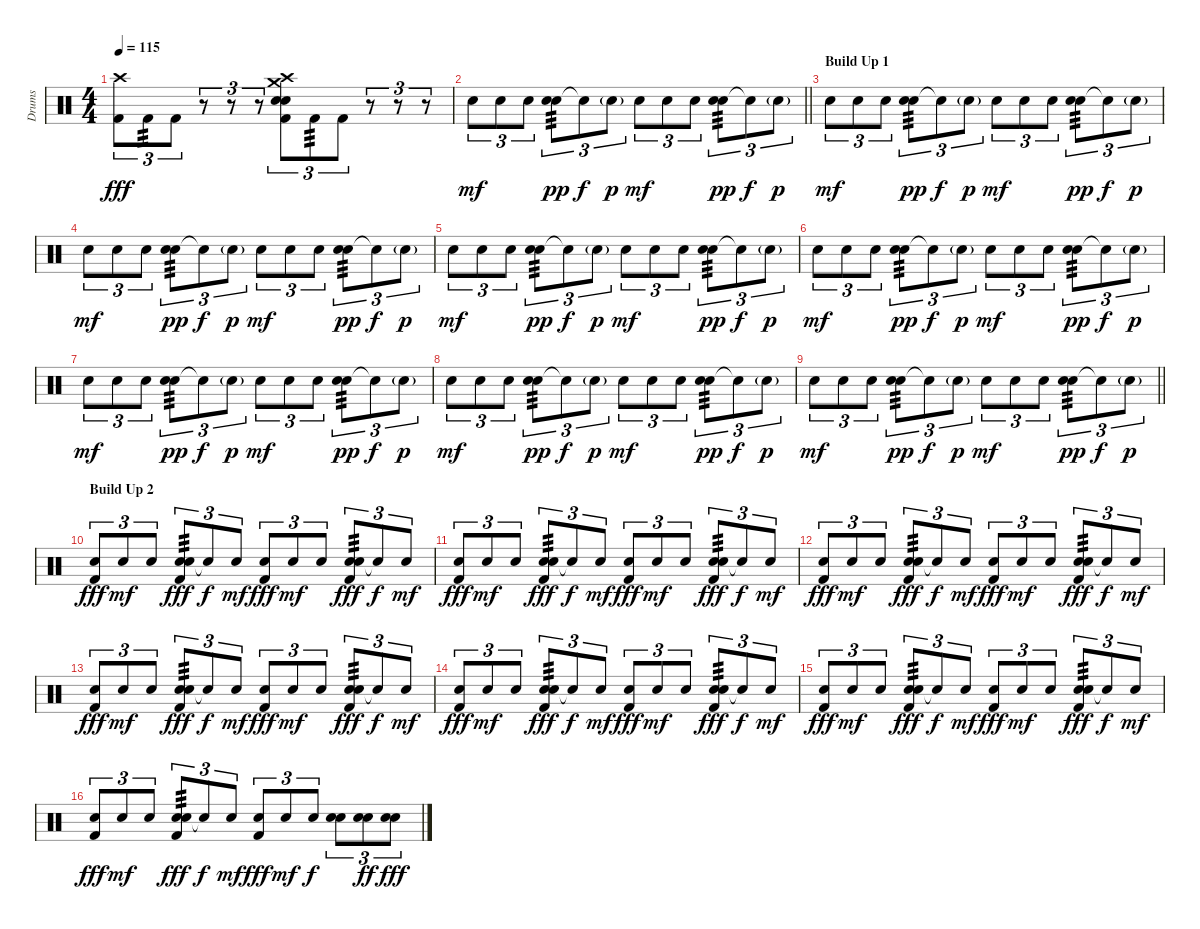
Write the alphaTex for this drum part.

\track ("Drums" "Drums") {instrument percussion}
\staff {score}
\articulation defaults
\ts (4 4)
\tempo 115
\clef neutral
\ks c
("Crash high (hit)" "Kick (hit) 2").8{tu (3 2) dy fff} "Kick (hit) 2".8{tu (3 2) tp 3} "Kick (hit) 2".8{tu (3 2)} r.8{tu (3 2)} r.8{tu (3 2)} r.8{tu (3 2)} ("Crash high (hit)" "Crash medium (hit)" "Snare (hit) 2" "Electric Snare (hit)" "Kick (hit) 2").8{tu (3 2)} "Kick (hit) 2".8{tu (3 2) tp 3} "Kick (hit) 2".8{tu (3 2)} r.8{tu (3 2)} r.8{tu (3 2)} r.8{tu (3 2)} |
\barLineRight lightlight "Electric Snare (hit)".8{tu (3 2) dy mf} "Electric Snare (hit)".8{tu (3 2)} "Electric Snare (hit)".8{tu (3 2)}
("Electric Snare (hit)" "Snare (hit) 2").8{tu (3 2) tp 3 dy pp} "Snare (hit)"{t}.8{tu (3 2) dy f} "Electric Snare (hit)"{g}.8{tu (3 2) dy p} "Electric Snare (hit)".8{tu (3 2) dy mf} "Electric Snare (hit)".8{tu (3 2)} "Electric Snare (hit)".8{tu (3 2)} ("Electric Snare (hit)" "Snare (hit) 2").8{tu (3 2) tp 3 dy pp} "Snare (hit)"{t}.8{tu (3 2) dy f} "Electric Snare (hit)"{g}.8{tu (3 2) dy p} |
\section ("" "Build Up 1")
"Electric Snare (hit)".8{tu (3 2) dy mf} "Electric Snare (hit)".8{tu (3 2)} "Electric Snare (hit)".8{tu (3 2)} ("Electric Snare (hit)" "Snare (hit) 2").8{tu (3 2) tp 3 dy pp} "Snare (hit)"{t}.8{tu (3 2) dy f} "Electric Snare (hit)"{g}.8{tu (3 2) dy p} "Electric Snare (hit)".8{tu (3 2) dy mf} "Electric Snare (hit)".8{tu (3 2)} "Electric Snare (hit)".8{tu (3 2)} ("Electric Snare (hit)" "Snare (hit) 2").8{tu (3 2) tp 3 dy pp} "Snare (hit)"{t}.8{tu (3 2) dy f} "Electric Snare (hit)"{g}.8{tu (3 2) dy p} |
"Electric Snare (hit)".8{tu (3 2) dy mf} "Electric Snare (hit)".8{tu (3 2)} "Electric Snare (hit)".8{tu (3 2)} ("Electric Snare (hit)" "Snare (hit) 2").8{tu (3 2) tp 3 dy pp} "Snare (hit)"{t}.8{tu (3 2) dy f} "Electric Snare (hit)"{g}.8{tu (3 2) dy p} "Electric Snare (hit)".8{tu (3 2) dy mf} "Electric Snare (hit)".8{tu (3 2)} "Electric Snare (hit)".8{tu (3 2)} ("Electric Snare (hit)" "Snare (hit) 2").8{tu (3 2) tp 3 dy pp} "Snare (hit)"{t}.8{tu (3 2) dy f} "Electric Snare (hit)"{g}.8{tu (3 2) dy p} |
"Electric Snare (hit)".8{tu (3 2) dy mf} "Electric Snare (hit)".8{tu (3 2)} "Electric Snare (hit)".8{tu (3 2)} ("Electric Snare (hit)" "Snare (hit) 2").8{tu (3 2) tp 3 dy pp} "Snare (hit)"{t}.8{tu (3 2) dy f} "Electric Snare (hit)"{g}.8{tu (3 2) dy p} "Electric Snare (hit)".8{tu (3 2) dy mf} "Electric Snare (hit)".8{tu (3 2)} "Electric Snare (hit)".8{tu (3 2)} ("Electric Snare (hit)" "Snare (hit) 2").8{tu (3 2) tp 3 dy pp} "Snare (hit)"{t}.8{tu (3 2) dy f} "Electric Snare (hit)"{g}.8{tu (3 2) dy p} |
"Electric Snare (hit)".8{tu (3 2) dy mf} "Electric Snare (hit)".8{tu (3 2)} "Electric Snare (hit)".8{tu (3 2)} ("Electric Snare (hit)" "Snare (hit) 2").8{tu (3 2) tp 3 dy pp} "Snare (hit)"{t}.8{tu (3 2) dy f} "Electric Snare (hit)"{g}.8{tu (3 2) dy p} "Electric Snare (hit)".8{tu (3 2) dy mf} "Electric Snare (hit)".8{tu (3 2)} "Electric Snare (hit)".8{tu (3 2)} ("Electric Snare (hit)" "Snare (hit) 2").8{tu (3 2) tp 3 dy pp} "Snare (hit)"{t}.8{tu (3 2) dy f} "Electric Snare (hit)"{g}.8{tu (3 2) dy p} |
"Electric Snare (hit)".8{tu (3 2) dy mf} "Electric Snare (hit)".8{tu (3 2)} "Electric Snare (hit)".8{tu (3 2)} ("Electric Snare (hit)" "Snare (hit) 2").8{tu (3 2) tp 3 dy pp} "Snare (hit)"{t}.8{tu (3 2) dy f} "Electric Snare (hit)"{g}.8{tu (3 2) dy p} "Electric Snare (hit)".8{tu (3 2) dy mf} "Electric Snare (hit)".8{tu (3 2)} "Electric Snare (hit)".8{tu (3 2)} ("Electric Snare (hit)" "Snare (hit) 2").8{tu (3 2) tp 3 dy pp} "Snare (hit)"{t}.8{tu (3 2) dy f} "Electric Snare (hit)"{g}.8{tu (3 2) dy p} |
"Electric Snare (hit)".8{tu (3 2) dy mf} "Electric Snare (hit)".8{tu (3 2)} "Electric Snare (hit)".8{tu (3 2)} ("Electric Snare (hit)" "Snare (hit) 2").8{tu (3 2) tp 3 dy pp} "Snare (hit)"{t}.8{tu (3 2) dy f} "Electric Snare (hit)"{g}.8{tu (3 2) dy p} "Electric Snare (hit)".8{tu (3 2) dy mf} "Electric Snare (hit)".8{tu (3 2)} "Electric Snare (hit)".8{tu (3 2)} ("Electric Snare (hit)" "Snare (hit) 2").8{tu (3 2) tp 3 dy pp} "Snare (hit)"{t}.8{tu (3 2) dy f} "Electric Snare (hit)"{g}.8{tu (3 2) dy p} |
\barLineRight lightlight "Electric Snare (hit)".8{tu (3 2) dy mf} "Electric Snare (hit)".8{tu (3 2)} "Electric Snare (hit)".8{tu (3 2)}
("Electric Snare (hit)" "Snare (hit) 2").8{tu (3 2) tp 3 dy pp} "Snare (hit)"{t}.8{tu (3 2) dy f} "Electric Snare (hit)"{g}.8{tu (3 2) dy p} "Electric Snare (hit)".8{tu (3 2) dy mf} "Electric Snare (hit)".8{tu (3 2)} "Electric Snare (hit)".8{tu (3 2)} ("Electric Snare (hit)" "Snare (hit) 2").8{tu (3 2) tp 3 dy pp} "Snare (hit)"{t}.8{tu (3 2) dy f} "Electric Snare (hit)"{g}.8{tu (3 2) dy p} |
\section ("" "Build Up 2")
("Electric Snare (hit)" "Kick (hit) 2").8{tu (3 2) dy fff} "Electric Snare (hit)".8{tu (3 2) dy mf} "Electric Snare (hit)".8{tu (3 2)} ("Electric Snare (hit)" "Hand Clap (hit)" "Kick (hit) 2").8{tu (3 2) tp 3 dy fff} "Snare (hit)"{t}.8{tu (3 2) dy f} "Electric Snare (hit)".8{tu (3 2) dy mf} ("Electric Snare (hit)" "Kick (hit) 2").8{tu (3 2) dy fff} "Electric Snare (hit)".8{tu (3 2) dy mf} "Electric Snare (hit)".8{tu (3 2)} ("Electric Snare (hit)" "Hand Clap (hit)" "Kick (hit) 2").8{tu (3 2) tp 3 dy fff} "Snare (hit)"{t}.8{tu (3 2) dy f} "Electric Snare (hit)".8{tu (3 2) dy mf} |
("Electric Snare (hit)" "Kick (hit) 2").8{tu (3 2) dy fff} "Electric Snare (hit)".8{tu (3 2) dy mf} "Electric Snare (hit)".8{tu (3 2)} ("Electric Snare (hit)" "Hand Clap (hit)" "Kick (hit) 2").8{tu (3 2) tp 3 dy fff} "Snare (hit)"{t}.8{tu (3 2) dy f} "Electric Snare (hit)".8{tu (3 2) dy mf} ("Electric Snare (hit)" "Kick (hit) 2").8{tu (3 2) dy fff} "Electric Snare (hit)".8{tu (3 2) dy mf} "Electric Snare (hit)".8{tu (3 2)} ("Electric Snare (hit)" "Hand Clap (hit)" "Kick (hit) 2").8{tu (3 2) tp 3 dy fff} "Snare (hit)"{t}.8{tu (3 2) dy f} "Electric Snare (hit)".8{tu (3 2) dy mf} |
("Electric Snare (hit)" "Kick (hit) 2").8{tu (3 2) dy fff} "Electric Snare (hit)".8{tu (3 2) dy mf} "Electric Snare (hit)".8{tu (3 2)} ("Electric Snare (hit)" "Hand Clap (hit)" "Kick (hit) 2").8{tu (3 2) tp 3 dy fff} "Snare (hit)"{t}.8{tu (3 2) dy f} "Electric Snare (hit)".8{tu (3 2) dy mf} ("Electric Snare (hit)" "Kick (hit) 2").8{tu (3 2) dy fff} "Electric Snare (hit)".8{tu (3 2) dy mf} "Electric Snare (hit)".8{tu (3 2)} ("Electric Snare (hit)" "Hand Clap (hit)" "Kick (hit) 2").8{tu (3 2) tp 3 dy fff} "Snare (hit)"{t}.8{tu (3 2) dy f} "Electric Snare (hit)".8{tu (3 2) dy mf} |
("Electric Snare (hit)" "Kick (hit) 2").8{tu (3 2) dy fff} "Electric Snare (hit)".8{tu (3 2) dy mf} "Electric Snare (hit)".8{tu (3 2)} ("Electric Snare (hit)" "Hand Clap (hit)" "Kick (hit) 2").8{tu (3 2) tp 3 dy fff} "Snare (hit)"{t}.8{tu (3 2) dy f} "Electric Snare (hit)".8{tu (3 2) dy mf} ("Electric Snare (hit)" "Kick (hit) 2").8{tu (3 2) dy fff} "Electric Snare (hit)".8{tu (3 2) dy mf} "Electric Snare (hit)".8{tu (3 2)} ("Electric Snare (hit)" "Hand Clap (hit)" "Kick (hit) 2").8{tu (3 2) tp 3 dy fff} "Snare (hit)"{t}.8{tu (3 2) dy f} "Electric Snare (hit)".8{tu (3 2) dy mf} |
("Electric Snare (hit)" "Kick (hit) 2").8{tu (3 2) dy fff} "Electric Snare (hit)".8{tu (3 2) dy mf} "Electric Snare (hit)".8{tu (3 2)} ("Electric Snare (hit)" "Hand Clap (hit)" "Kick (hit) 2").8{tu (3 2) tp 3 dy fff} "Snare (hit)"{t}.8{tu (3 2) dy f} "Electric Snare (hit)".8{tu (3 2) dy mf} ("Electric Snare (hit)" "Kick (hit) 2").8{tu (3 2) dy fff} "Electric Snare (hit)".8{tu (3 2) dy mf} "Electric Snare (hit)".8{tu (3 2)} ("Electric Snare (hit)" "Hand Clap (hit)" "Kick (hit) 2").8{tu (3 2) tp 3 dy fff} "Snare (hit)"{t}.8{tu (3 2) dy f} "Electric Snare (hit)".8{tu (3 2) dy mf} |
("Electric Snare (hit)" "Kick (hit) 2").8{tu (3 2) dy fff} "Electric Snare (hit)".8{tu (3 2) dy mf} "Electric Snare (hit)".8{tu (3 2)} ("Electric Snare (hit)" "Hand Clap (hit)" "Kick (hit) 2").8{tu (3 2) tp 3 dy fff} "Snare (hit)"{t}.8{tu (3 2) dy f} "Electric Snare (hit)".8{tu (3 2) dy mf} ("Electric Snare (hit)" "Kick (hit) 2").8{tu (3 2) dy fff} "Electric Snare (hit)".8{tu (3 2) dy mf} "Electric Snare (hit)".8{tu (3 2)} ("Electric Snare (hit)" "Hand Clap (hit)" "Kick (hit) 2").8{tu (3 2) tp 3 dy fff} "Snare (hit)"{t}.8{tu (3 2) dy f} "Electric Snare (hit)".8{tu (3 2) dy mf} |
("Electric Snare (hit)" "Kick (hit) 2").8{tu (3 2) dy fff} "Electric Snare (hit)".8{tu (3 2) dy mf} "Electric Snare (hit)".8{tu (3 2)} ("Electric Snare (hit)" "Hand Clap (hit)" "Kick (hit) 2").8{tu (3 2) tp 3 dy fff} "Snare (hit)"{t}.8{tu (3 2) dy f} "Electric Snare (hit)".8{tu (3 2) dy mf} ("Electric Snare (hit)" "Kick (hit) 2").8{tu (3 2) dy fff} "Electric Snare (hit)".8{tu (3 2) dy mf} "Electric Snare (hit)".8{tu (3 2) dy f} ("Electric Snare (hit)" "Snare (hit) 2").8{tu (3 2)} ("Electric Snare (hit)" "Snare (hit) 2").8{tu (3 2) dy ff} ("Electric Snare (hit)" "Snare (hit) 2").8{tu (3 2) dy fff}
